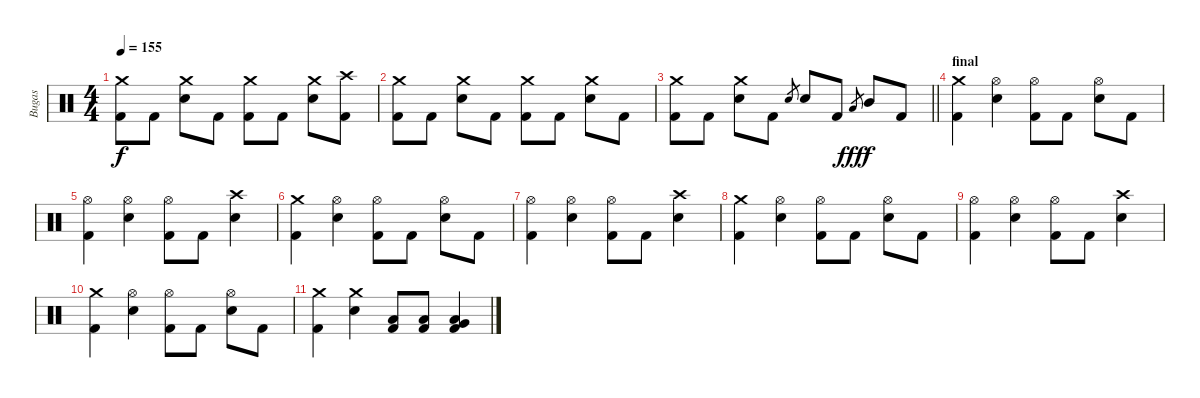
\track ("Bugas" "Bugas") {instrument percussion}
\staff {score}
\articulation defaults
\ts (4 4)
\tempo 155
\clef neutral
\ks c
("Crash medium (hit)" "Kick (hit) 2").8{dy f} "Kick (hit) 2".8 ("Crash medium (hit)" "Electric Snare (hit)").8 "Kick (hit) 2".8 ("Crash medium (hit)" "Kick (hit) 2").8 "Kick (hit) 2".8 ("Crash medium (hit)" "Electric Snare (hit)").8 ("Crash high (hit)" "Kick (hit) 2").8 |
("Crash medium (hit)" "Kick (hit) 2").8 "Kick (hit) 2".8 ("Crash medium (hit)" "Electric Snare (hit)").8 "Kick (hit) 2".8 ("Crash medium (hit)" "Kick (hit) 2").8 "Kick (hit) 2".8 ("Crash medium (hit)" "Electric Snare (hit)").8 "Kick (hit) 2".8 |
\barLineRight lightlight
("Crash medium (hit)" "Kick (hit) 2").8 "Kick (hit) 2".8 ("Crash medium (hit)" "Electric Snare (hit)").8 "Kick (hit) 2".8 "Electric Snare (hit)".8{gr} "Electric Snare (hit)".8 "Kick (hit) 2".8 "Low Tom (hit)".8{gr dy fff} "Mid Tom (hit)".8{dy f} "Kick (hit) 2".8 |
\section ("" "final")
("Crash medium (hit)" "Kick (hit) 2").4 ("Hi-Hat (open)" "Electric Snare (hit)").4 ("Hi-Hat (open)" "Kick (hit) 2").8 "Kick (hit) 2".8 ("Hi-Hat (open)" "Electric Snare (hit)").8 "Kick (hit) 2".8 |
("Hi-Hat (open)" "Kick (hit) 2").4 ("Hi-Hat (open)" "Electric Snare (hit)").4 ("Hi-Hat (open)" "Kick (hit) 2").8 "Kick (hit) 2".8 ("Crash high (hit)" "Electric Snare (hit)").4 |
("Crash medium (hit)" "Kick (hit) 2").4 ("Hi-Hat (open)" "Electric Snare (hit)").4 ("Hi-Hat (open)" "Kick (hit) 2").8 "Kick (hit) 2".8 ("Hi-Hat (open)" "Electric Snare (hit)").8 "Kick (hit) 2".8 |
("Hi-Hat (open)" "Kick (hit) 2").4 ("Hi-Hat (open)" "Electric Snare (hit)").4 ("Hi-Hat (open)" "Kick (hit) 2").8 "Kick (hit) 2".8 ("Crash high (hit)" "Electric Snare (hit)").4 |
("Crash medium (hit)" "Kick (hit) 2").4 ("Hi-Hat (open)" "Electric Snare (hit)").4 ("Hi-Hat (open)" "Kick (hit) 2").8 "Kick (hit) 2".8 ("Hi-Hat (open)" "Electric Snare (hit)").8 "Kick (hit) 2".8 |
("Hi-Hat (open)" "Kick (hit) 2").4 ("Hi-Hat (open)" "Electric Snare (hit)").4 ("Hi-Hat (open)" "Kick (hit) 2").8 "Kick (hit) 2".8 ("Crash high (hit)" "Electric Snare (hit)").4 |
("Crash medium (hit)" "Kick (hit) 2").4 ("Hi-Hat (open)" "Electric Snare (hit)").4 ("Hi-Hat (open)" "Kick (hit) 2").8 "Kick (hit) 2".8 ("Hi-Hat (open)" "Electric Snare (hit)").8 "Kick (hit) 2".8 |
("Crash medium (hit)" "Kick (hit) 2").4 ("Crash medium (hit)" "Electric Snare (hit)").4 ("Low Tom (hit)" "Kick (hit) 2").8 ("Low Tom (hit)" "Kick (hit) 2").8 ("Very Low Tom (hit)" "Low Tom (hit)" "Kick (hit) 2").4
